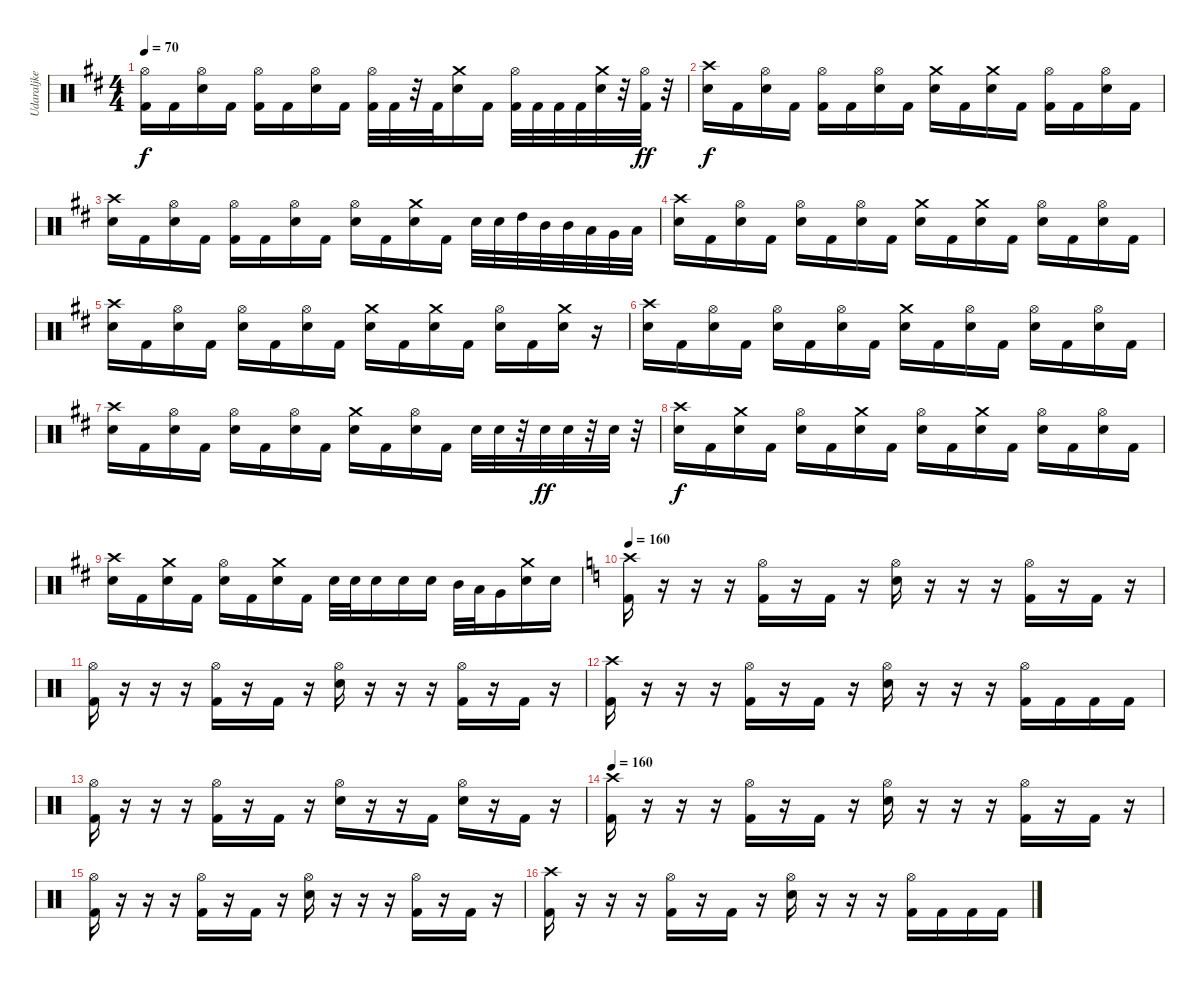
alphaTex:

\track ("Udaraljke" "Udaraljke") {instrument percussion}
\staff {score}
\articulation defaults
\ts (4 4)
\tempo 70
\clef neutral
\ks bminor
("Hi-Hat (open)" "Kick (hit) 2").16{dy f} "Kick (hit) 2".16 ("Hi-Hat (open)" "Snare (hit) 2").16 "Kick (hit) 2".16 ("Hi-Hat (open)" "Kick (hit) 2").16 "Kick (hit) 2".16 ("Hi-Hat (open)" "Snare (hit) 2").16 "Kick (hit) 2".16 ("Hi-Hat (open)" "Kick (hit) 2").32 "Kick (hit) 2".32 r.32 "Kick (hit) 2".32 ("Crash medium (hit)" "Snare (hit) 2").16 "Kick (hit) 2".16 ("Hi-Hat (open)" "Kick (hit) 2").32 "Kick (hit) 2".32 "Kick (hit) 2".32 "Kick (hit) 2".32 ("Crash medium (hit)" "Snare (hit) 2").32 r.32 ("Hi-Hat (open)" "Kick (hit) 2").32{dy ff} r.32 |
("Crash high (hit)" "Snare (hit) 2").16{dy f} "Kick (hit) 2".16 ("Hi-Hat (open)" "Snare (hit) 2").16 "Kick (hit) 2".16 ("Hi-Hat (open)" "Kick (hit) 2").16 "Kick (hit) 2".16 ("Hi-Hat (open)" "Snare (hit) 2").16 "Kick (hit) 2".16 ("Crash medium (hit)" "Snare (hit) 2").16 "Kick (hit) 2".16 ("Crash medium (hit)" "Snare (hit) 2").16 "Kick (hit) 2".16 ("Hi-Hat (open)" "Kick (hit) 2").16 "Kick (hit) 2".16 ("Hi-Hat (open)" "Snare (hit) 2").16 "Kick (hit) 2".16 |
("Crash high (hit)" "Snare (hit) 2").16 "Kick (hit) 2".16 ("Hi-Hat (open)" "Snare (hit) 2").16 "Kick (hit) 2".16 ("Hi-Hat (open)" "Kick (hit) 2").16 "Kick (hit) 2".16 ("Hi-Hat (open)" "Snare (hit) 2").16 "Kick (hit) 2".16 ("Hi-Hat (open)" "Snare (hit) 2").16 "Kick (hit) 2".16 ("Crash medium (hit)" "Snare (hit) 2").16 "Kick (hit) 2".16 "Snare (hit) 2".32 "Snare (hit) 2".32 "High Tom (hit)".32 "Mid Tom (hit)".32 "Mid Tom (hit)".32 "Low Tom (hit)".32 "Very Low Tom (hit)".32 "Low Floor Tom (hit)".32 |
("Crash high (hit)" "Snare (hit) 2").16 "Kick (hit) 2".16 ("Hi-Hat (open)" "Snare (hit) 2").16 "Kick (hit) 2".16 ("Hi-Hat (open)" "Snare (hit) 2").16 "Kick (hit) 2".16 ("Hi-Hat (open)" "Snare (hit) 2").16 "Kick (hit) 2".16 ("Crash medium (hit)" "Snare (hit) 2").16 "Kick (hit) 2".16 ("Crash medium (hit)" "Snare (hit) 2").16 "Kick (hit) 2".16 ("Hi-Hat (open)" "Snare (hit) 2").16 "Kick (hit) 2".16 ("Hi-Hat (open)" "Snare (hit) 2").16 "Kick (hit) 2".16 |
("Crash high (hit)" "Snare (hit) 2").16 "Kick (hit) 2".16 ("Hi-Hat (open)" "Snare (hit) 2").16 "Kick (hit) 2".16 ("Hi-Hat (open)" "Snare (hit) 2").16 "Kick (hit) 2".16 ("Hi-Hat (open)" "Snare (hit) 2").16 "Kick (hit) 2".16 ("Crash medium (hit)" "Snare (hit) 2").16 "Kick (hit) 2".16 ("Crash medium (hit)" "Snare (hit) 2").16 "Kick (hit) 2".16 ("Hi-Hat (open)" "Snare (hit) 2").16 "Kick (hit) 2".16 ("Crash medium (hit)" "Snare (hit) 2").16 r.16 |
("Crash high (hit)" "Snare (hit) 2").16 "Kick (hit) 2".16 ("Hi-Hat (open)" "Snare (hit) 2").16 "Kick (hit) 2".16 ("Hi-Hat (open)" "Snare (hit) 2").16 "Kick (hit) 2".16 ("Hi-Hat (open)" "Snare (hit) 2").16 "Kick (hit) 2".16 ("Crash medium (hit)" "Snare (hit) 2").16 "Kick (hit) 2".16 ("Hi-Hat (open)" "Snare (hit) 2").16 "Kick (hit) 2".16 ("Hi-Hat (open)" "Snare (hit) 2").16 "Kick (hit) 2".16 ("Hi-Hat (open)" "Snare (hit) 2").16 "Kick (hit) 2".16 |
("Crash high (hit)" "Snare (hit) 2").16 "Kick (hit) 2".16 ("Hi-Hat (open)" "Snare (hit) 2").16 "Kick (hit) 2".16 ("Hi-Hat (open)" "Snare (hit) 2").16 "Kick (hit) 2".16 ("Hi-Hat (open)" "Snare (hit) 2").16 "Kick (hit) 2".16 ("Crash medium (hit)" "Snare (hit) 2").16 "Kick (hit) 2".16 ("Hi-Hat (open)" "Snare (hit) 2").16 "Kick (hit) 2".16 "Snare (hit) 2".32 "Snare (hit) 2".32 r.32 "Snare (hit) 2".32{dy ff} "Snare (hit) 2".32 r.32 "Snare (hit) 2".32 r.32 |
("Crash high (hit)" "Snare (hit) 2").16{dy f} "Kick (hit) 2".16 ("Crash medium (hit)" "Snare (hit) 2").16 "Kick (hit) 2".16 ("Hi-Hat (open)" "Snare (hit) 2").16 "Kick (hit) 2".16 ("Crash medium (hit)" "Snare (hit) 2").16 "Kick (hit) 2".16 ("Hi-Hat (open)" "Snare (hit) 2").16 "Kick (hit) 2".16 ("Crash medium (hit)" "Snare (hit) 2").16 "Kick (hit) 2".16 ("Hi-Hat (open)" "Snare (hit) 2").16 "Kick (hit) 2".16 ("Hi-Hat (open)" "Snare (hit) 2").16 "Kick (hit) 2".16 |
("Crash high (hit)" "Snare (hit) 2").16 "Kick (hit) 2".16 ("Crash medium (hit)" "Snare (hit) 2").16 "Kick (hit) 2".16 ("Hi-Hat (open)" "Snare (hit) 2").16 "Kick (hit) 2".16 ("Crash medium (hit)" "Snare (hit) 2").16 "Kick (hit) 2".16 "Snare (hit) 2".32 "Snare (hit) 2".32 "Snare (hit) 2".16 "Snare (hit) 2".16 "Snare (hit) 2".16 "Mid Tom (hit)".32 "Low Tom (hit)".32 "Very Low Tom (hit)".16 ("Crash medium (hit)" "Snare (hit) 2").16 "Snare (hit) 2".16 |
\tempo 160
\ks c
("Crash high (hit)" "Kick (hit) 2").16 r.16 r.16 r.16 ("Hi-Hat (open)" "Kick (hit) 2").16 r.16 "Kick (hit) 2".16 r.16 ("Hi-Hat (open)" "Snare (hit) 2").16 r.16 r.16 r.16 ("Hi-Hat (open)" "Kick (hit) 2").16 r.16 "Kick (hit) 2".16 r.16 |
("Hi-Hat (open)" "Kick (hit) 2").16 r.16 r.16 r.16 ("Hi-Hat (open)" "Kick (hit) 2").16 r.16 "Kick (hit) 2".16 r.16 ("Hi-Hat (open)" "Snare (hit) 2").16 r.16 r.16 r.16 ("Hi-Hat (open)" "Kick (hit) 2").16 r.16 "Kick (hit) 2".16 r.16 |
("Crash high (hit)" "Kick (hit) 2").16 r.16 r.16 r.16 ("Hi-Hat (open)" "Kick (hit) 2").16 r.16 "Kick (hit) 2".16 r.16 ("Hi-Hat (open)" "Snare (hit) 2").16 r.16 r.16 r.16 ("Hi-Hat (open)" "Kick (hit) 2").16 "Kick (hit) 2".16 "Kick (hit) 2".16 "Kick (hit) 2".16 |
("Hi-Hat (open)" "Kick (hit) 2").16 r.16 r.16 r.16 ("Hi-Hat (open)" "Kick (hit) 2").16 r.16 "Kick (hit) 2".16 r.16 ("Hi-Hat (open)" "Snare (hit) 2").16 r.16 r.16 "Kick (hit) 2".16 ("Hi-Hat (open)" "Snare (hit) 2").16 r.16 "Kick (hit) 2".16 r.16 |
\tempo 160
("Crash high (hit)" "Kick (hit) 2").16 r.16 r.16 r.16 ("Hi-Hat (open)" "Kick (hit) 2").16 r.16 "Kick (hit) 2".16 r.16 ("Hi-Hat (open)" "Snare (hit) 2").16 r.16 r.16 r.16 ("Hi-Hat (open)" "Kick (hit) 2").16 r.16 "Kick (hit) 2".16 r.16 |
("Hi-Hat (open)" "Kick (hit) 2").16 r.16 r.16 r.16 ("Hi-Hat (open)" "Kick (hit) 2").16 r.16 "Kick (hit) 2".16 r.16 ("Hi-Hat (open)" "Snare (hit) 2").16 r.16 r.16 r.16 ("Hi-Hat (open)" "Kick (hit) 2").16 r.16 "Kick (hit) 2".16 r.16 |
("Crash high (hit)" "Kick (hit) 2").16 r.16 r.16 r.16 ("Hi-Hat (open)" "Kick (hit) 2").16 r.16 "Kick (hit) 2".16 r.16 ("Hi-Hat (open)" "Snare (hit) 2").16 r.16 r.16 r.16 ("Hi-Hat (open)" "Kick (hit) 2").16 "Kick (hit) 2".16 "Kick (hit) 2".16 "Kick (hit) 2".16
